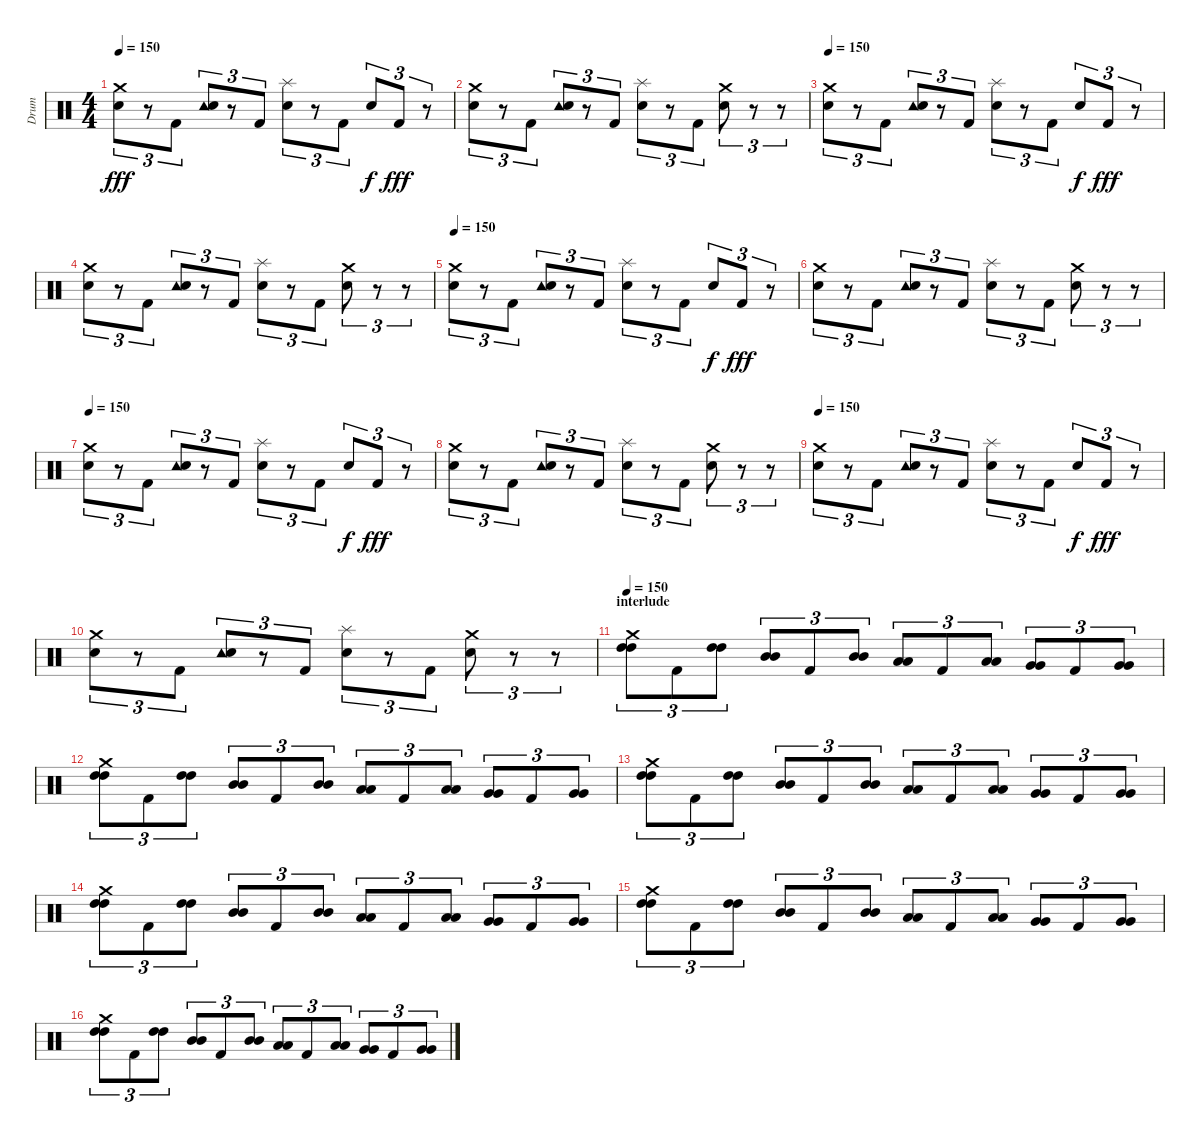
\track ("Drum" "Drum") {instrument percussion}
\staff {score}
\articulation defaults
\ts (4 4)
\tempo 150
\clef neutral
\ks c
("Crash medium (hit)" "Electric Snare (hit)").8{tu (3 2) dy fff} r.8{tu (3 2)} "Kick (hit) 2".8{tu (3 2)} ("Tambourine (hit)" "Electric Snare (hit)").8{tu (3 2)} r.8{tu (3 2)} "Kick (hit) 2".8{tu (3 2)} ("Splash (hit)" "Snare (hit) 2").8{tu (3 2)} r.8{tu (3 2)} "Kick (hit) 2".8{tu (3 2)} "Electric Snare (hit)".8{tu (3 2) dy f} "Kick (hit) 2".8{tu (3 2) dy fff} r.8{tu (3 2)} |
("Crash medium (hit)" "Electric Snare (hit)").8{tu (3 2)} r.8{tu (3 2)} "Kick (hit) 2".8{tu (3 2)} ("Tambourine (hit)" "Electric Snare (hit)").8{tu (3 2)} r.8{tu (3 2)} "Kick (hit) 2".8{tu (3 2)} ("Splash (hit)" "Snare (hit) 2").8{tu (3 2)} r.8{tu (3 2)} "Kick (hit) 2".8{tu (3 2)} ("Crash medium (hit)" "Electric Snare (hit)").8{tu (3 2)} r.8{tu (3 2)} r.8{tu (3 2)} |
\tempo 150
("Crash medium (hit)" "Electric Snare (hit)").8{tu (3 2)} r.8{tu (3 2)} "Kick (hit) 2".8{tu (3 2)} ("Tambourine (hit)" "Electric Snare (hit)").8{tu (3 2)} r.8{tu (3 2)} "Kick (hit) 2".8{tu (3 2)} ("Splash (hit)" "Snare (hit) 2").8{tu (3 2)} r.8{tu (3 2)} "Kick (hit) 2".8{tu (3 2)} "Electric Snare (hit)".8{tu (3 2) dy f} "Kick (hit) 2".8{tu (3 2) dy fff} r.8{tu (3 2)} |
("Crash medium (hit)" "Electric Snare (hit)").8{tu (3 2)} r.8{tu (3 2)} "Kick (hit) 2".8{tu (3 2)} ("Tambourine (hit)" "Electric Snare (hit)").8{tu (3 2)} r.8{tu (3 2)} "Kick (hit) 2".8{tu (3 2)} ("Splash (hit)" "Snare (hit) 2").8{tu (3 2)} r.8{tu (3 2)} "Kick (hit) 2".8{tu (3 2)} ("Crash medium (hit)" "Electric Snare (hit)").8{tu (3 2)} r.8{tu (3 2)} r.8{tu (3 2)} |
\tempo 150
("Crash medium (hit)" "Electric Snare (hit)").8{tu (3 2)} r.8{tu (3 2)} "Kick (hit) 2".8{tu (3 2)} ("Tambourine (hit)" "Electric Snare (hit)").8{tu (3 2)} r.8{tu (3 2)} "Kick (hit) 2".8{tu (3 2)} ("Splash (hit)" "Snare (hit) 2").8{tu (3 2)} r.8{tu (3 2)} "Kick (hit) 2".8{tu (3 2)} "Electric Snare (hit)".8{tu (3 2) dy f} "Kick (hit) 2".8{tu (3 2) dy fff} r.8{tu (3 2)} |
("Crash medium (hit)" "Electric Snare (hit)").8{tu (3 2)} r.8{tu (3 2)} "Kick (hit) 2".8{tu (3 2)} ("Tambourine (hit)" "Electric Snare (hit)").8{tu (3 2)} r.8{tu (3 2)} "Kick (hit) 2".8{tu (3 2)} ("Splash (hit)" "Snare (hit) 2").8{tu (3 2)} r.8{tu (3 2)} "Kick (hit) 2".8{tu (3 2)} ("Crash medium (hit)" "Electric Snare (hit)").8{tu (3 2)} r.8{tu (3 2)} r.8{tu (3 2)} |
\tempo 150
("Crash medium (hit)" "Electric Snare (hit)").8{tu (3 2)} r.8{tu (3 2)} "Kick (hit) 2".8{tu (3 2)} ("Tambourine (hit)" "Electric Snare (hit)").8{tu (3 2)} r.8{tu (3 2)} "Kick (hit) 2".8{tu (3 2)} ("Splash (hit)" "Snare (hit) 2").8{tu (3 2)} r.8{tu (3 2)} "Kick (hit) 2".8{tu (3 2)} "Electric Snare (hit)".8{tu (3 2) dy f} "Kick (hit) 2".8{tu (3 2) dy fff} r.8{tu (3 2)} |
("Crash medium (hit)" "Electric Snare (hit)").8{tu (3 2)} r.8{tu (3 2)} "Kick (hit) 2".8{tu (3 2)} ("Tambourine (hit)" "Electric Snare (hit)").8{tu (3 2)} r.8{tu (3 2)} "Kick (hit) 2".8{tu (3 2)} ("Splash (hit)" "Snare (hit) 2").8{tu (3 2)} r.8{tu (3 2)} "Kick (hit) 2".8{tu (3 2)} ("Crash medium (hit)" "Electric Snare (hit)").8{tu (3 2)} r.8{tu (3 2)} r.8{tu (3 2)} |
\tempo 150
("Crash medium (hit)" "Electric Snare (hit)").8{tu (3 2)} r.8{tu (3 2)} "Kick (hit) 2".8{tu (3 2)} ("Tambourine (hit)" "Electric Snare (hit)").8{tu (3 2)} r.8{tu (3 2)} "Kick (hit) 2".8{tu (3 2)} ("Splash (hit)" "Snare (hit) 2").8{tu (3 2)} r.8{tu (3 2)} "Kick (hit) 2".8{tu (3 2)} "Electric Snare (hit)".8{tu (3 2) dy f} "Kick (hit) 2".8{tu (3 2) dy fff} r.8{tu (3 2)} |
("Crash medium (hit)" "Electric Snare (hit)").8{tu (3 2)} r.8{tu (3 2)} "Kick (hit) 2".8{tu (3 2)} ("Tambourine (hit)" "Electric Snare (hit)").8{tu (3 2)} r.8{tu (3 2)} "Kick (hit) 2".8{tu (3 2)} ("Splash (hit)" "Snare (hit) 2").8{tu (3 2)} r.8{tu (3 2)} "Kick (hit) 2".8{tu (3 2)} ("Crash medium (hit)" "Electric Snare (hit)").8{tu (3 2)} r.8{tu (3 2)} r.8{tu (3 2)} |
\section ("" "interlude")
\tempo 150
("Crash medium (hit)" "High Tom (hit)" "High Tom (hit)").8{tu (3 2)} "Kick (hit) 2".8{tu (3 2)} ("High Tom (hit)" "High Tom (hit)").8{tu (3 2)} ("Mid Tom (hit)" "Mid Tom (hit)").8{tu (3 2)} "Kick (hit) 2".8{tu (3 2)} ("Mid Tom (hit)" "Mid Tom (hit)").8{tu (3 2)} ("Low Tom (hit)" "Low Tom (hit)").8{tu (3 2)} "Kick (hit) 2".8{tu (3 2)} ("Low Tom (hit)" "Low Tom (hit)").8{tu (3 2)} ("Very Low Tom (hit)" "Very Low Tom (hit)").8{tu (3 2)} "Kick (hit) 2".8{tu (3 2)} ("Very Low Tom (hit)" "Very Low Tom (hit)").8{tu (3 2)} |
("Crash medium (hit)" "High Tom (hit)" "High Tom (hit)").8{tu (3 2)} "Kick (hit) 2".8{tu (3 2)} ("High Tom (hit)" "High Tom (hit)").8{tu (3 2)} ("Mid Tom (hit)" "Mid Tom (hit)").8{tu (3 2)} "Kick (hit) 2".8{tu (3 2)} ("Mid Tom (hit)" "Mid Tom (hit)").8{tu (3 2)} ("Low Tom (hit)" "Low Tom (hit)").8{tu (3 2)} "Kick (hit) 2".8{tu (3 2)} ("Low Tom (hit)" "Low Tom (hit)").8{tu (3 2)} ("Very Low Tom (hit)" "Very Low Tom (hit)").8{tu (3 2)} "Kick (hit) 2".8{tu (3 2)} ("Very Low Tom (hit)" "Very Low Tom (hit)").8{tu (3 2)} |
("Crash medium (hit)" "High Tom (hit)" "High Tom (hit)").8{tu (3 2)} "Kick (hit) 2".8{tu (3 2)} ("High Tom (hit)" "High Tom (hit)").8{tu (3 2)} ("Mid Tom (hit)" "Mid Tom (hit)").8{tu (3 2)} "Kick (hit) 2".8{tu (3 2)} ("Mid Tom (hit)" "Mid Tom (hit)").8{tu (3 2)} ("Low Tom (hit)" "Low Tom (hit)").8{tu (3 2)} "Kick (hit) 2".8{tu (3 2)} ("Low Tom (hit)" "Low Tom (hit)").8{tu (3 2)} ("Very Low Tom (hit)" "Very Low Tom (hit)").8{tu (3 2)} "Kick (hit) 2".8{tu (3 2)} ("Very Low Tom (hit)" "Very Low Tom (hit)").8{tu (3 2)} |
("Crash medium (hit)" "High Tom (hit)" "High Tom (hit)").8{tu (3 2)} "Kick (hit) 2".8{tu (3 2)} ("High Tom (hit)" "High Tom (hit)").8{tu (3 2)} ("Mid Tom (hit)" "Mid Tom (hit)").8{tu (3 2)} "Kick (hit) 2".8{tu (3 2)} ("Mid Tom (hit)" "Mid Tom (hit)").8{tu (3 2)} ("Low Tom (hit)" "Low Tom (hit)").8{tu (3 2)} "Kick (hit) 2".8{tu (3 2)} ("Low Tom (hit)" "Low Tom (hit)").8{tu (3 2)} ("Very Low Tom (hit)" "Very Low Tom (hit)").8{tu (3 2)} "Kick (hit) 2".8{tu (3 2)} ("Very Low Tom (hit)" "Very Low Tom (hit)").8{tu (3 2)} |
("Crash medium (hit)" "High Tom (hit)" "High Tom (hit)").8{tu (3 2)} "Kick (hit) 2".8{tu (3 2)} ("High Tom (hit)" "High Tom (hit)").8{tu (3 2)} ("Mid Tom (hit)" "Mid Tom (hit)").8{tu (3 2)} "Kick (hit) 2".8{tu (3 2)} ("Mid Tom (hit)" "Mid Tom (hit)").8{tu (3 2)} ("Low Tom (hit)" "Low Tom (hit)").8{tu (3 2)} "Kick (hit) 2".8{tu (3 2)} ("Low Tom (hit)" "Low Tom (hit)").8{tu (3 2)} ("Very Low Tom (hit)" "Very Low Tom (hit)").8{tu (3 2)} "Kick (hit) 2".8{tu (3 2)} ("Very Low Tom (hit)" "Very Low Tom (hit)").8{tu (3 2)} |
("Crash medium (hit)" "High Tom (hit)" "High Tom (hit)").8{tu (3 2)} "Kick (hit) 2".8{tu (3 2)} ("High Tom (hit)" "High Tom (hit)").8{tu (3 2)} ("Mid Tom (hit)" "Mid Tom (hit)").8{tu (3 2)} "Kick (hit) 2".8{tu (3 2)} ("Mid Tom (hit)" "Mid Tom (hit)").8{tu (3 2)} ("Low Tom (hit)" "Low Tom (hit)").8{tu (3 2)} "Kick (hit) 2".8{tu (3 2)} ("Low Tom (hit)" "Low Tom (hit)").8{tu (3 2)} ("Very Low Tom (hit)" "Very Low Tom (hit)").8{tu (3 2)} "Kick (hit) 2".8{tu (3 2)} ("Very Low Tom (hit)" "Very Low Tom (hit)").8{tu (3 2)}
